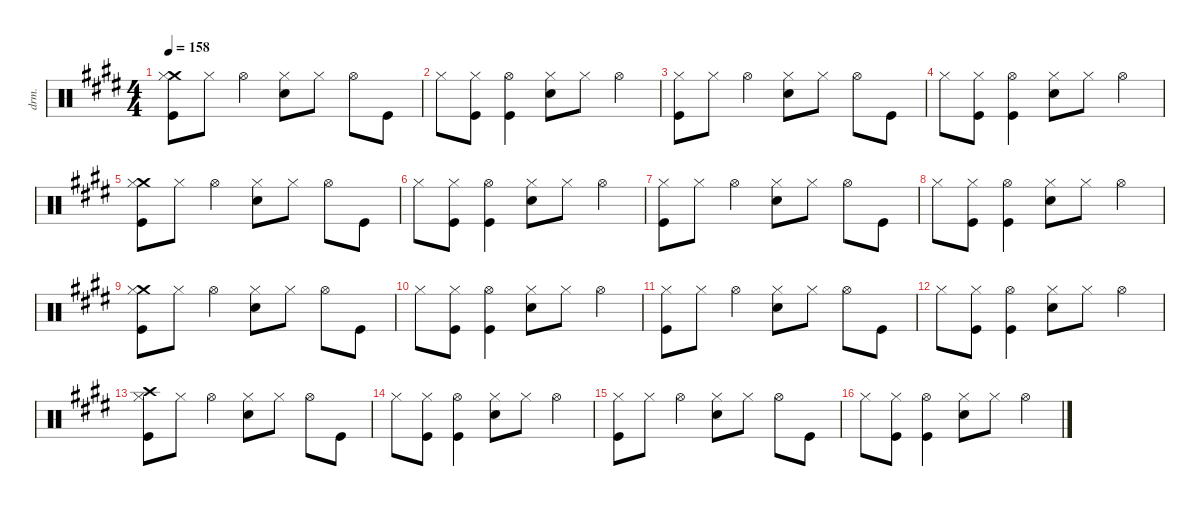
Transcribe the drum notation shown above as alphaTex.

\defaultSystemsLayout 4
\hideDynamics
\bracketExtendMode groupsimilarinstruments
\otherSystemsTrackNameOrientation horizontal
\track ("Drums" "drm.") {defaultSystemsLayout 4 instrument percussion}
\staff {score}
\articulation defaults
\ts (4 4)
\beaming (8 2 2 2 2)
\tempo 158
\clef neutral
\ks c#minor
("Crash medium (hit)"{acc forcenatural} "Hi-Hat (closed)"{acc forcenatural} "Kick (hit)"{acc forcenatural}).8{dy f beam Down} "Hi-Hat (closed)"{acc forcenatural}.8{dy mf beam Down} "Hi-Hat (open)"{acc forcenatural}.4{dy f beam Down} ("Hi-Hat (closed)"{acc forcenatural} "Snare (hit) 2"{acc forcenatural}).8{beam Down} "Hi-Hat (closed)"{acc forcenatural}.8{dy mf beam Down} "Hi-Hat (open)"{acc forcenatural}.8{dy f beam Down} "Kick (hit)"{acc forcenatural}.8{beam Down} |
"Hi-Hat (closed)"{acc forcenatural}.8{beam Down} ("Hi-Hat (closed)"{acc forcenatural} "Kick (hit)"{acc forcenatural}).8{dy mf beam Down} ("Hi-Hat (open)"{acc forcenatural} "Kick (hit)"{acc forcenatural}).4{dy f beam Down} ("Hi-Hat (closed)"{acc forcenatural} "Snare (hit) 2"{acc forcenatural}).8{beam Down} "Hi-Hat (closed)"{acc forcenatural}.8{dy mf beam Down} "Hi-Hat (open)"{acc forcenatural}.4{dy f beam Down} |
("Hi-Hat (closed)"{acc forcenatural} "Kick (hit)"{acc forcenatural}).8{beam Down} "Hi-Hat (closed)"{acc forcenatural}.8{dy mf beam Down} "Hi-Hat (open)"{acc forcenatural}.4{dy f beam Down} ("Hi-Hat (closed)"{acc forcenatural} "Snare (hit) 2"{acc forcenatural}).8{beam Down} "Hi-Hat (closed)"{acc forcenatural}.8{dy mf beam Down} "Hi-Hat (open)"{acc forcenatural}.8{dy f beam Down} "Kick (hit)"{acc forcenatural}.8{beam Down} |
"Hi-Hat (closed)"{acc forcenatural}.8{beam Down} ("Hi-Hat (closed)"{acc forcenatural} "Kick (hit)"{acc forcenatural}).8{dy mf beam Down} ("Hi-Hat (open)"{acc forcenatural} "Kick (hit)"{acc forcenatural}).4{dy f beam Down} ("Hi-Hat (closed)"{acc forcenatural} "Snare (hit) 2"{acc forcenatural}).8{beam Down} "Hi-Hat (closed)"{acc forcenatural}.8{dy mf beam Down} "Hi-Hat (open)"{acc forcenatural}.4{dy f beam Down} |
("Crash medium (hit)"{acc forcenatural} "Hi-Hat (closed)"{acc forcenatural} "Kick (hit)"{acc forcenatural}).8{beam Down} "Hi-Hat (closed)"{acc forcenatural}.8{dy mf beam Down} "Hi-Hat (open)"{acc forcenatural}.4{dy f beam Down} ("Hi-Hat (closed)"{acc forcenatural} "Snare (hit) 2"{acc forcenatural}).8{beam Down} "Hi-Hat (closed)"{acc forcenatural}.8{dy mf beam Down} "Hi-Hat (open)"{acc forcenatural}.8{dy f beam Down} "Kick (hit)"{acc forcenatural}.8{beam Down} |
"Hi-Hat (closed)"{acc forcenatural}.8{beam Down} ("Hi-Hat (closed)"{acc forcenatural} "Kick (hit)"{acc forcenatural}).8{dy mf beam Down} ("Hi-Hat (open)"{acc forcenatural} "Kick (hit)"{acc forcenatural}).4{dy f beam Down} ("Hi-Hat (closed)"{acc forcenatural} "Snare (hit) 2"{acc forcenatural}).8{beam Down} "Hi-Hat (closed)"{acc forcenatural}.8{dy mf beam Down} "Hi-Hat (open)"{acc forcenatural}.4{dy f beam Down} |
("Hi-Hat (closed)"{acc forcenatural} "Kick (hit)"{acc forcenatural}).8{beam Down} "Hi-Hat (closed)"{acc forcenatural}.8{dy mf beam Down} "Hi-Hat (open)"{acc forcenatural}.4{dy f beam Down} ("Hi-Hat (closed)"{acc forcenatural} "Snare (hit) 2"{acc forcenatural}).8{beam Down} "Hi-Hat (closed)"{acc forcenatural}.8{dy mf beam Down} "Hi-Hat (open)"{acc forcenatural}.8{dy f beam Down} "Kick (hit)"{acc forcenatural}.8{beam Down} |
"Hi-Hat (closed)"{acc forcenatural}.8{beam Down} ("Hi-Hat (closed)"{acc forcenatural} "Kick (hit)"{acc forcenatural}).8{dy mf beam Down} ("Hi-Hat (open)"{acc forcenatural} "Kick (hit)"{acc forcenatural}).4{dy f beam Down} ("Hi-Hat (closed)"{acc forcenatural} "Snare (hit) 2"{acc forcenatural}).8{beam Down} "Hi-Hat (closed)"{acc forcenatural}.8{dy mf beam Down} "Hi-Hat (open)"{acc forcenatural}.4{dy f beam Down} |
("Crash medium (hit)"{acc forcenatural} "Hi-Hat (closed)"{acc forcenatural} "Kick (hit)"{acc forcenatural}).8{beam Down} "Hi-Hat (closed)"{acc forcenatural}.8{dy mf beam Down} "Hi-Hat (open)"{acc forcenatural}.4{dy f beam Down} ("Hi-Hat (closed)"{acc forcenatural} "Snare (hit) 2"{acc forcenatural}).8{beam Down} "Hi-Hat (closed)"{acc forcenatural}.8{dy mf beam Down} "Hi-Hat (open)"{acc forcenatural}.8{dy f beam Down} "Kick (hit)"{acc forcenatural}.8{beam Down} |
"Hi-Hat (closed)"{acc forcenatural}.8{beam Down} ("Hi-Hat (closed)"{acc forcenatural} "Kick (hit)"{acc forcenatural}).8{dy mf beam Down} ("Hi-Hat (open)"{acc forcenatural} "Kick (hit)"{acc forcenatural}).4{dy f beam Down} ("Hi-Hat (closed)"{acc forcenatural} "Snare (hit) 2"{acc forcenatural}).8{beam Down} "Hi-Hat (closed)"{acc forcenatural}.8{dy mf beam Down} "Hi-Hat (open)"{acc forcenatural}.4{dy f beam Down} |
("Hi-Hat (closed)"{acc forcenatural} "Kick (hit)"{acc forcenatural}).8{beam Down} "Hi-Hat (closed)"{acc forcenatural}.8{dy mf beam Down} "Hi-Hat (open)"{acc forcenatural}.4{dy f beam Down} ("Hi-Hat (closed)"{acc forcenatural} "Snare (hit) 2"{acc forcenatural}).8{beam Down} "Hi-Hat (closed)"{acc forcenatural}.8{dy mf beam Down} "Hi-Hat (open)"{acc forcenatural}.8{dy f beam Down} "Kick (hit)"{acc forcenatural}.8{beam Down} |
"Hi-Hat (closed)"{acc forcenatural}.8{beam Down} ("Hi-Hat (closed)"{acc forcenatural} "Kick (hit)"{acc forcenatural}).8{dy mf beam Down} ("Hi-Hat (open)"{acc forcenatural} "Kick (hit)"{acc forcenatural}).4{dy f beam Down} ("Hi-Hat (closed)"{acc forcenatural} "Snare (hit) 2"{acc forcenatural}).8{beam Down} "Hi-Hat (closed)"{acc forcenatural}.8{dy mf beam Down} "Hi-Hat (open)"{acc forcenatural}.4{dy f beam Down} |
("Kick (hit)"{acc forcenatural} "Hi-Hat (closed)"{acc forcenatural} "Crash high (hit)"{acc forcenatural}).8{beam Down} "Hi-Hat (closed)"{acc forcenatural}.8{dy mf beam Down} "Hi-Hat (open)"{acc forcenatural}.4{dy f beam Down} ("Hi-Hat (closed)"{acc forcenatural} "Snare (hit) 2"{acc forcenatural}).8{beam Down} "Hi-Hat (closed)"{acc forcenatural}.8{dy mf beam Down} "Hi-Hat (open)"{acc forcenatural}.8{dy f beam Down} "Kick (hit)"{acc forcenatural}.8{beam Down} |
"Hi-Hat (closed)"{acc forcenatural}.8{beam Down} ("Hi-Hat (closed)"{acc forcenatural} "Kick (hit)"{acc forcenatural}).8{dy mf beam Down} ("Hi-Hat (open)"{acc forcenatural} "Kick (hit)"{acc forcenatural}).4{dy f beam Down} ("Hi-Hat (closed)"{acc forcenatural} "Snare (hit) 2"{acc forcenatural}).8{beam Down} "Hi-Hat (closed)"{acc forcenatural}.8{dy mf beam Down} "Hi-Hat (open)"{acc forcenatural}.4{dy f beam Down} |
("Hi-Hat (closed)"{acc forcenatural} "Kick (hit)"{acc forcenatural}).8{beam Down} "Hi-Hat (closed)"{acc forcenatural}.8{dy mf beam Down} "Hi-Hat (open)"{acc forcenatural}.4{dy f beam Down} ("Hi-Hat (closed)"{acc forcenatural} "Snare (hit) 2"{acc forcenatural}).8{beam Down} "Hi-Hat (closed)"{acc forcenatural}.8{dy mf beam Down} "Hi-Hat (open)"{acc forcenatural}.8{dy f beam Down} "Kick (hit)"{acc forcenatural}.8{beam Down} |
"Hi-Hat (closed)"{acc forcenatural}.8{beam Down} ("Hi-Hat (closed)"{acc forcenatural} "Kick (hit)"{acc forcenatural}).8{dy mf beam Down} ("Hi-Hat (open)"{acc forcenatural} "Kick (hit)"{acc forcenatural}).4{dy f beam Down} ("Hi-Hat (closed)"{acc forcenatural} "Snare (hit) 2"{acc forcenatural}).8{beam Down} "Hi-Hat (closed)"{acc forcenatural}.8{dy mf beam Down} "Hi-Hat (open)"{acc forcenatural}.4{dy f beam Down}
